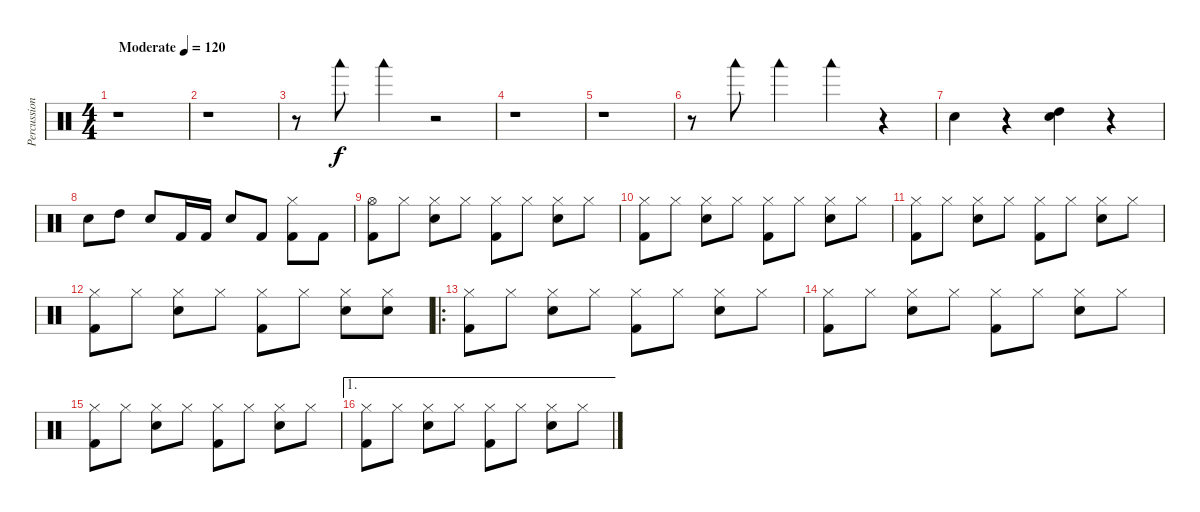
\track ("Percussion" "Percussion") {instrument percussion}
\staff {score}
\articulation defaults
\ts (4 4)
\tempo (120 "Moderate")
\clef neutral
\ks c
r.1{dy f} |
r.1 |
r.8 "Woodblock low (hit)".8 "Woodblock low (hit)".4 r.2 |
r.1 |
r.1 |
r.8 "Woodblock low (hit)".8 "Woodblock low (hit)".4 "Woodblock low (hit)".4 r.4 |
"Snare (hit) 2".4 r.4 ("High Tom (hit)" "Snare (hit) 2").4 r.4 |
"Snare (hit) 2".8 "High Tom (hit)".8 "Snare (hit) 2".8 "Kick (hit) 2".16 "Kick (hit) 2".16 "Snare (hit) 2".8 "Kick (hit) 2".8 ("Hi-Hat (closed)" "Kick (hit) 2").8 "Kick (hit) 2".8 |
("Hi-Hat (open)" "Kick (hit) 2").8 "Hi-Hat (closed)".8 ("Hi-Hat (closed)" "Snare (hit) 2").8 "Hi-Hat (closed)".8 ("Hi-Hat (closed)" "Kick (hit) 2").8 "Hi-Hat (closed)".8 ("Hi-Hat (closed)" "Snare (hit) 2").8 "Hi-Hat (closed)".8 |
("Hi-Hat (closed)" "Kick (hit) 2").8 "Hi-Hat (closed)".8 ("Hi-Hat (closed)" "Snare (hit) 2").8 "Hi-Hat (closed)".8 ("Hi-Hat (closed)" "Kick (hit) 2").8 "Hi-Hat (closed)".8 ("Hi-Hat (closed)" "Snare (hit) 2").8 "Hi-Hat (closed)".8 |
("Hi-Hat (closed)" "Kick (hit) 2").8 "Hi-Hat (closed)".8 ("Hi-Hat (closed)" "Snare (hit) 2").8 "Hi-Hat (closed)".8 ("Hi-Hat (closed)" "Kick (hit) 2").8 "Hi-Hat (closed)".8 ("Hi-Hat (closed)" "Snare (hit) 2").8 "Hi-Hat (closed)".8 |
("Hi-Hat (closed)" "Kick (hit) 2").8 "Hi-Hat (closed)".8 ("Hi-Hat (closed)" "Snare (hit) 2").8 "Hi-Hat (closed)".8 ("Hi-Hat (closed)" "Kick (hit) 2").8 "Hi-Hat (closed)".8 ("Hi-Hat (closed)" "Snare (hit) 2").8 ("Hi-Hat (closed)" "Snare (hit) 2").8 |
\ro
("Hi-Hat (closed)" "Kick (hit) 2").8 "Hi-Hat (closed)".8 ("Hi-Hat (closed)" "Snare (hit) 2").8 "Hi-Hat (closed)".8 ("Hi-Hat (closed)" "Kick (hit) 2").8 "Hi-Hat (closed)".8 ("Hi-Hat (closed)" "Snare (hit) 2").8 "Hi-Hat (closed)".8 |
("Hi-Hat (closed)" "Kick (hit) 2").8 "Hi-Hat (closed)".8 ("Hi-Hat (closed)" "Snare (hit) 2").8 "Hi-Hat (closed)".8 ("Hi-Hat (closed)" "Kick (hit) 2").8 "Hi-Hat (closed)".8 ("Hi-Hat (closed)" "Snare (hit) 2").8 "Hi-Hat (closed)".8 |
("Hi-Hat (closed)" "Kick (hit) 2").8 "Hi-Hat (closed)".8 ("Hi-Hat (closed)" "Snare (hit) 2").8 "Hi-Hat (closed)".8 ("Hi-Hat (closed)" "Kick (hit) 2").8 "Hi-Hat (closed)".8 ("Hi-Hat (closed)" "Snare (hit) 2").8 "Hi-Hat (closed)".8 |
\ae 1
("Hi-Hat (closed)" "Kick (hit) 2").8 "Hi-Hat (closed)".8 ("Hi-Hat (closed)" "Snare (hit) 2").8 "Hi-Hat (closed)".8 ("Hi-Hat (closed)" "Kick (hit) 2").8 "Hi-Hat (closed)".8 ("Hi-Hat (closed)" "Snare (hit) 2").8 "Hi-Hat (closed)".8
